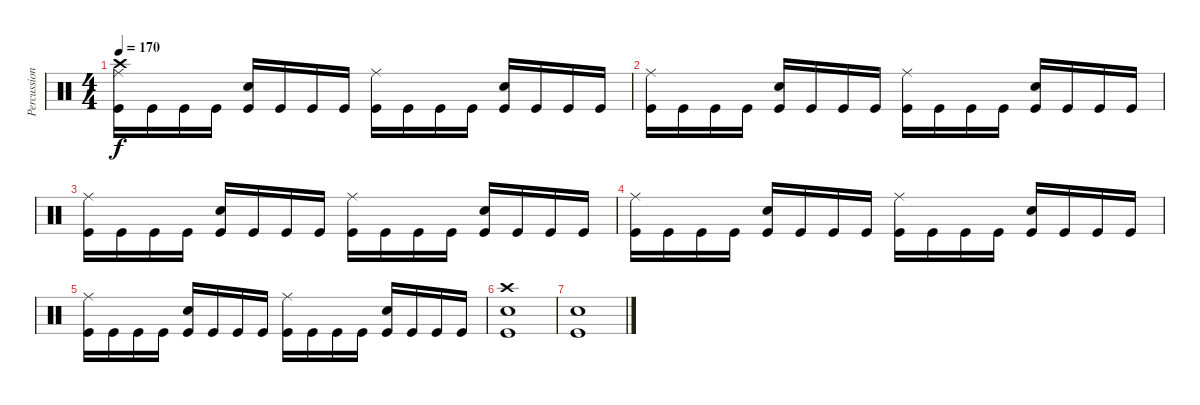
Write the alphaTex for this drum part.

\track ("Percussion" "Percussion") {instrument percussion}
\staff {score}
\articulation defaults
\ts (4 4)
\tempo 170
\clef neutral
\ks c
("Ride (middle)" "Crash high (hit)" "Kick (hit)").16{dy f} "Kick (hit)".16 "Kick (hit)".16 "Kick (hit)".16 ("Snare (hit) 2" "Kick (hit)").16 "Kick (hit)".16 "Kick (hit)".16 "Kick (hit)".16 ("Ride (middle)" "Kick (hit)").16 "Kick (hit)".16 "Kick (hit)".16 "Kick (hit)".16 ("Snare (hit) 2" "Kick (hit)").16 "Kick (hit)".16 "Kick (hit)".16 "Kick (hit)".16 |
("Ride (middle)" "Kick (hit)").16 "Kick (hit)".16 "Kick (hit)".16 "Kick (hit)".16 ("Snare (hit) 2" "Kick (hit)").16 "Kick (hit)".16 "Kick (hit)".16 "Kick (hit)".16 ("Ride (middle)" "Kick (hit)").16 "Kick (hit)".16 "Kick (hit)".16 "Kick (hit)".16 ("Snare (hit) 2" "Kick (hit)").16 "Kick (hit)".16 "Kick (hit)".16 "Kick (hit)".16 |
("Ride (middle)" "Kick (hit)").16 "Kick (hit)".16 "Kick (hit)".16 "Kick (hit)".16 ("Snare (hit) 2" "Kick (hit)").16 "Kick (hit)".16 "Kick (hit)".16 "Kick (hit)".16 ("Ride (middle)" "Kick (hit)").16 "Kick (hit)".16 "Kick (hit)".16 "Kick (hit)".16 ("Snare (hit) 2" "Kick (hit)").16 "Kick (hit)".16 "Kick (hit)".16 "Kick (hit)".16 |
("Ride (middle)" "Kick (hit)").16 "Kick (hit)".16 "Kick (hit)".16 "Kick (hit)".16 ("Snare (hit) 2" "Kick (hit)").16 "Kick (hit)".16 "Kick (hit)".16 "Kick (hit)".16 ("Ride (middle)" "Kick (hit)").16 "Kick (hit)".16 "Kick (hit)".16 "Kick (hit)".16 ("Snare (hit) 2" "Kick (hit)").16 "Kick (hit)".16 "Kick (hit)".16 "Kick (hit)".16 |
("Ride (middle)" "Kick (hit)").16 "Kick (hit)".16 "Kick (hit)".16 "Kick (hit)".16 ("Snare (hit) 2" "Kick (hit)").16 "Kick (hit)".16 "Kick (hit)".16 "Kick (hit)".16 ("Ride (middle)" "Kick (hit)").16 "Kick (hit)".16 "Kick (hit)".16 "Kick (hit)".16 ("Snare (hit) 2" "Kick (hit)").16 "Kick (hit)".16 "Kick (hit)".16 "Kick (hit)".16 |
("Snare (hit) 2" "Crash high (hit)" "Kick (hit)").1 |
("Snare (hit) 2" "Kick (hit)").1
